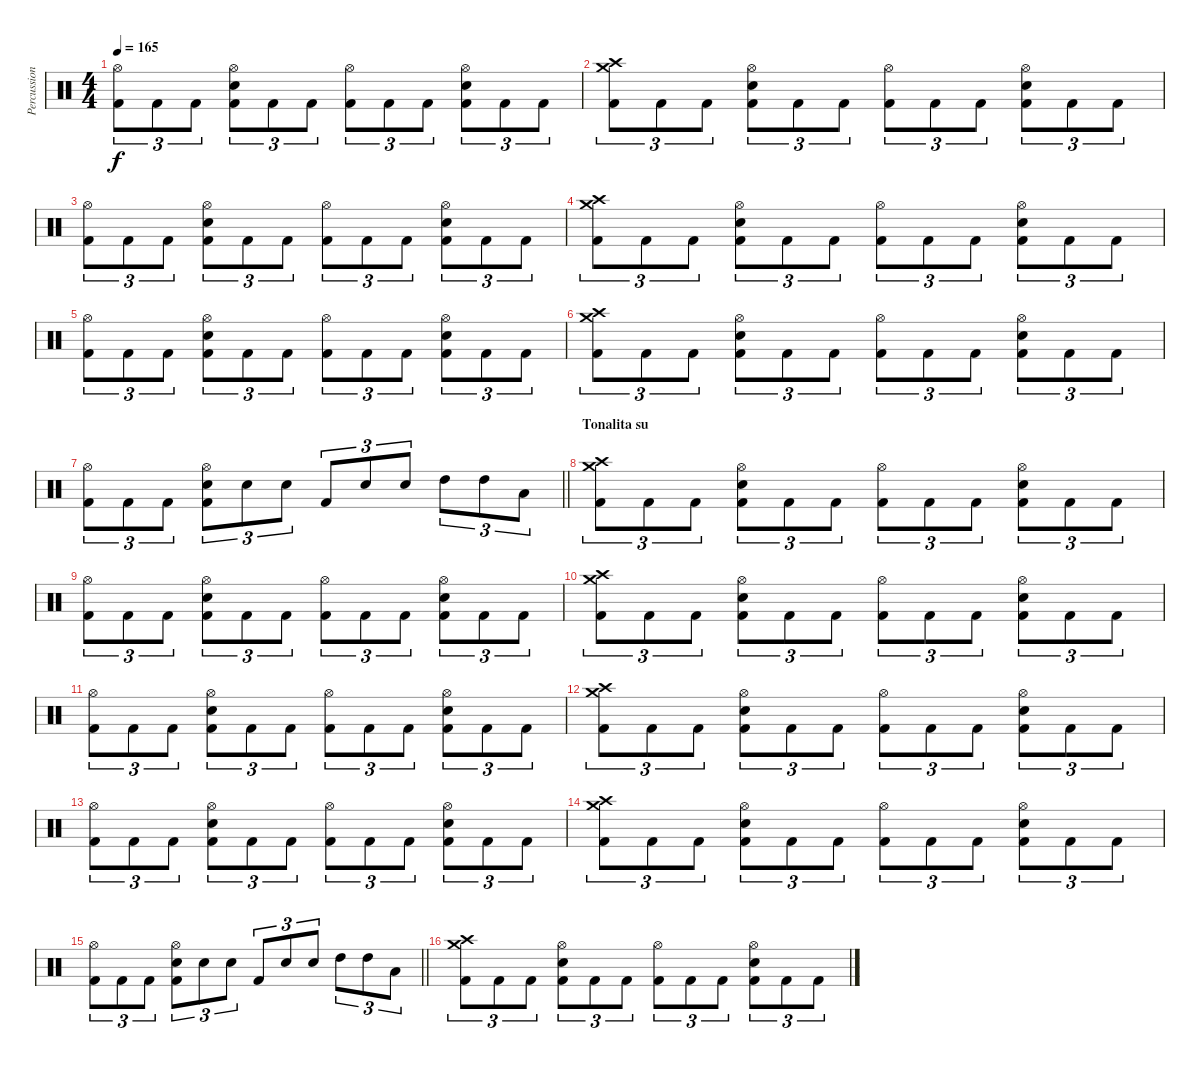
\track ("Percussioni" "Percussion") {instrument percussion}
\staff {score}
\articulation defaults
\ts (4 4)
\tempo 165
\clef neutral
\ks c
("Hi-Hat (open)" "Kick (hit) 2").8{tu (3 2) dy f} "Kick (hit) 2".8{tu (3 2)} "Kick (hit) 2".8{tu (3 2)} ("Hi-Hat (open)" "Electric Snare (hit)" "Kick (hit) 2").8{tu (3 2)} "Kick (hit) 2".8{tu (3 2)} "Kick (hit) 2".8{tu (3 2)} ("Hi-Hat (open)" "Kick (hit) 2").8{tu (3 2)} "Kick (hit) 2".8{tu (3 2)} "Kick (hit) 2".8{tu (3 2)} ("Hi-Hat (open)" "Electric Snare (hit)" "Kick (hit) 2").8{tu (3 2)} "Kick (hit) 2".8{tu (3 2)} "Kick (hit) 2".8{tu (3 2)} |
("Crash high (hit)" "Crash medium (hit)" "Kick (hit) 2").8{tu (3 2)} "Kick (hit) 2".8{tu (3 2)} "Kick (hit) 2".8{tu (3 2)} ("Hi-Hat (open)" "Electric Snare (hit)" "Kick (hit) 2").8{tu (3 2)} "Kick (hit) 2".8{tu (3 2)} "Kick (hit) 2".8{tu (3 2)} ("Hi-Hat (open)" "Kick (hit) 2").8{tu (3 2)} "Kick (hit) 2".8{tu (3 2)} "Kick (hit) 2".8{tu (3 2)} ("Hi-Hat (open)" "Electric Snare (hit)" "Kick (hit) 2").8{tu (3 2)} "Kick (hit) 2".8{tu (3 2)} "Kick (hit) 2".8{tu (3 2)} |
("Hi-Hat (open)" "Kick (hit) 2").8{tu (3 2)} "Kick (hit) 2".8{tu (3 2)} "Kick (hit) 2".8{tu (3 2)} ("Hi-Hat (open)" "Electric Snare (hit)" "Kick (hit) 2").8{tu (3 2)} "Kick (hit) 2".8{tu (3 2)} "Kick (hit) 2".8{tu (3 2)} ("Hi-Hat (open)" "Kick (hit) 2").8{tu (3 2)} "Kick (hit) 2".8{tu (3 2)} "Kick (hit) 2".8{tu (3 2)} ("Hi-Hat (open)" "Electric Snare (hit)" "Kick (hit) 2").8{tu (3 2)} "Kick (hit) 2".8{tu (3 2)} "Kick (hit) 2".8{tu (3 2)} |
("Crash high (hit)" "Crash medium (hit)" "Kick (hit) 2").8{tu (3 2)} "Kick (hit) 2".8{tu (3 2)} "Kick (hit) 2".8{tu (3 2)} ("Hi-Hat (open)" "Electric Snare (hit)" "Kick (hit) 2").8{tu (3 2)} "Kick (hit) 2".8{tu (3 2)} "Kick (hit) 2".8{tu (3 2)} ("Hi-Hat (open)" "Kick (hit) 2").8{tu (3 2)} "Kick (hit) 2".8{tu (3 2)} "Kick (hit) 2".8{tu (3 2)} ("Hi-Hat (open)" "Electric Snare (hit)" "Kick (hit) 2").8{tu (3 2)} "Kick (hit) 2".8{tu (3 2)} "Kick (hit) 2".8{tu (3 2)} |
("Hi-Hat (open)" "Kick (hit) 2").8{tu (3 2)} "Kick (hit) 2".8{tu (3 2)} "Kick (hit) 2".8{tu (3 2)} ("Hi-Hat (open)" "Electric Snare (hit)" "Kick (hit) 2").8{tu (3 2)} "Kick (hit) 2".8{tu (3 2)} "Kick (hit) 2".8{tu (3 2)} ("Hi-Hat (open)" "Kick (hit) 2").8{tu (3 2)} "Kick (hit) 2".8{tu (3 2)} "Kick (hit) 2".8{tu (3 2)} ("Hi-Hat (open)" "Electric Snare (hit)" "Kick (hit) 2").8{tu (3 2)} "Kick (hit) 2".8{tu (3 2)} "Kick (hit) 2".8{tu (3 2)} |
("Crash high (hit)" "Crash medium (hit)" "Kick (hit) 2").8{tu (3 2)} "Kick (hit) 2".8{tu (3 2)} "Kick (hit) 2".8{tu (3 2)} ("Hi-Hat (open)" "Electric Snare (hit)" "Kick (hit) 2").8{tu (3 2)} "Kick (hit) 2".8{tu (3 2)} "Kick (hit) 2".8{tu (3 2)} ("Hi-Hat (open)" "Kick (hit) 2").8{tu (3 2)} "Kick (hit) 2".8{tu (3 2)} "Kick (hit) 2".8{tu (3 2)} ("Hi-Hat (open)" "Electric Snare (hit)" "Kick (hit) 2").8{tu (3 2)} "Kick (hit) 2".8{tu (3 2)} "Kick (hit) 2".8{tu (3 2)} |
\barLineRight lightlight
("Hi-Hat (open)" "Kick (hit) 2").8{tu (3 2)} "Kick (hit) 2".8{tu (3 2)} "Kick (hit) 2".8{tu (3 2)} ("Hi-Hat (open)" "Electric Snare (hit)" "Kick (hit) 2").8{tu (3 2)} "Electric Snare (hit)".8{tu (3 2)} "Electric Snare (hit)".8{tu (3 2)} "Kick (hit) 2".8{tu (3 2)} "Electric Snare (hit)".8{tu (3 2)} "Electric Snare (hit)".8{tu (3 2)} "High Tom (hit)".8{tu (3 2)} "High Tom (hit)".8{tu (3 2)} "Low Tom (hit)".8{tu (3 2)} |
\section ("" "Tonalita su")
("Crash high (hit)" "Crash medium (hit)" "Kick (hit) 2").8{tu (3 2)} "Kick (hit) 2".8{tu (3 2)} "Kick (hit) 2".8{tu (3 2)} ("Hi-Hat (open)" "Electric Snare (hit)" "Kick (hit) 2").8{tu (3 2)} "Kick (hit) 2".8{tu (3 2)} "Kick (hit) 2".8{tu (3 2)} ("Hi-Hat (open)" "Kick (hit) 2").8{tu (3 2)} "Kick (hit) 2".8{tu (3 2)} "Kick (hit) 2".8{tu (3 2)} ("Hi-Hat (open)" "Electric Snare (hit)" "Kick (hit) 2").8{tu (3 2)} "Kick (hit) 2".8{tu (3 2)} "Kick (hit) 2".8{tu (3 2)} |
("Hi-Hat (open)" "Kick (hit) 2").8{tu (3 2)} "Kick (hit) 2".8{tu (3 2)} "Kick (hit) 2".8{tu (3 2)} ("Hi-Hat (open)" "Electric Snare (hit)" "Kick (hit) 2").8{tu (3 2)} "Kick (hit) 2".8{tu (3 2)} "Kick (hit) 2".8{tu (3 2)} ("Hi-Hat (open)" "Kick (hit) 2").8{tu (3 2)} "Kick (hit) 2".8{tu (3 2)} "Kick (hit) 2".8{tu (3 2)} ("Hi-Hat (open)" "Electric Snare (hit)" "Kick (hit) 2").8{tu (3 2)} "Kick (hit) 2".8{tu (3 2)} "Kick (hit) 2".8{tu (3 2)} |
("Crash high (hit)" "Crash medium (hit)" "Kick (hit) 2").8{tu (3 2)} "Kick (hit) 2".8{tu (3 2)} "Kick (hit) 2".8{tu (3 2)} ("Hi-Hat (open)" "Electric Snare (hit)" "Kick (hit) 2").8{tu (3 2)} "Kick (hit) 2".8{tu (3 2)} "Kick (hit) 2".8{tu (3 2)} ("Hi-Hat (open)" "Kick (hit) 2").8{tu (3 2)} "Kick (hit) 2".8{tu (3 2)} "Kick (hit) 2".8{tu (3 2)} ("Hi-Hat (open)" "Electric Snare (hit)" "Kick (hit) 2").8{tu (3 2)} "Kick (hit) 2".8{tu (3 2)} "Kick (hit) 2".8{tu (3 2)} |
("Hi-Hat (open)" "Kick (hit) 2").8{tu (3 2)} "Kick (hit) 2".8{tu (3 2)} "Kick (hit) 2".8{tu (3 2)} ("Hi-Hat (open)" "Electric Snare (hit)" "Kick (hit) 2").8{tu (3 2)} "Kick (hit) 2".8{tu (3 2)} "Kick (hit) 2".8{tu (3 2)} ("Hi-Hat (open)" "Kick (hit) 2").8{tu (3 2)} "Kick (hit) 2".8{tu (3 2)} "Kick (hit) 2".8{tu (3 2)} ("Hi-Hat (open)" "Electric Snare (hit)" "Kick (hit) 2").8{tu (3 2)} "Kick (hit) 2".8{tu (3 2)} "Kick (hit) 2".8{tu (3 2)} |
("Crash high (hit)" "Crash medium (hit)" "Kick (hit) 2").8{tu (3 2)} "Kick (hit) 2".8{tu (3 2)} "Kick (hit) 2".8{tu (3 2)} ("Hi-Hat (open)" "Electric Snare (hit)" "Kick (hit) 2").8{tu (3 2)} "Kick (hit) 2".8{tu (3 2)} "Kick (hit) 2".8{tu (3 2)} ("Hi-Hat (open)" "Kick (hit) 2").8{tu (3 2)} "Kick (hit) 2".8{tu (3 2)} "Kick (hit) 2".8{tu (3 2)} ("Hi-Hat (open)" "Electric Snare (hit)" "Kick (hit) 2").8{tu (3 2)} "Kick (hit) 2".8{tu (3 2)} "Kick (hit) 2".8{tu (3 2)} |
("Hi-Hat (open)" "Kick (hit) 2").8{tu (3 2)} "Kick (hit) 2".8{tu (3 2)} "Kick (hit) 2".8{tu (3 2)} ("Hi-Hat (open)" "Electric Snare (hit)" "Kick (hit) 2").8{tu (3 2)} "Kick (hit) 2".8{tu (3 2)} "Kick (hit) 2".8{tu (3 2)} ("Hi-Hat (open)" "Kick (hit) 2").8{tu (3 2)} "Kick (hit) 2".8{tu (3 2)} "Kick (hit) 2".8{tu (3 2)} ("Hi-Hat (open)" "Electric Snare (hit)" "Kick (hit) 2").8{tu (3 2)} "Kick (hit) 2".8{tu (3 2)} "Kick (hit) 2".8{tu (3 2)} |
("Crash high (hit)" "Crash medium (hit)" "Kick (hit) 2").8{tu (3 2)} "Kick (hit) 2".8{tu (3 2)} "Kick (hit) 2".8{tu (3 2)} ("Hi-Hat (open)" "Electric Snare (hit)" "Kick (hit) 2").8{tu (3 2)} "Kick (hit) 2".8{tu (3 2)} "Kick (hit) 2".8{tu (3 2)} ("Hi-Hat (open)" "Kick (hit) 2").8{tu (3 2)} "Kick (hit) 2".8{tu (3 2)} "Kick (hit) 2".8{tu (3 2)} ("Hi-Hat (open)" "Electric Snare (hit)" "Kick (hit) 2").8{tu (3 2)} "Kick (hit) 2".8{tu (3 2)} "Kick (hit) 2".8{tu (3 2)} |
\barLineRight lightlight
("Hi-Hat (open)" "Kick (hit) 2").8{tu (3 2)} "Kick (hit) 2".8{tu (3 2)} "Kick (hit) 2".8{tu (3 2)} ("Hi-Hat (open)" "Electric Snare (hit)" "Kick (hit) 2").8{tu (3 2)} "Electric Snare (hit)".8{tu (3 2)} "Electric Snare (hit)".8{tu (3 2)} "Kick (hit) 2".8{tu (3 2)} "Electric Snare (hit)".8{tu (3 2)} "Electric Snare (hit)".8{tu (3 2)} "High Tom (hit)".8{tu (3 2)} "High Tom (hit)".8{tu (3 2)} "Low Tom (hit)".8{tu (3 2)} |
\section ("" "")
("Crash high (hit)" "Crash medium (hit)" "Kick (hit) 2").8{tu (3 2)} "Kick (hit) 2".8{tu (3 2)} "Kick (hit) 2".8{tu (3 2)} ("Hi-Hat (open)" "Electric Snare (hit)" "Kick (hit) 2").8{tu (3 2)} "Kick (hit) 2".8{tu (3 2)} "Kick (hit) 2".8{tu (3 2)} ("Hi-Hat (open)" "Kick (hit) 2").8{tu (3 2)} "Kick (hit) 2".8{tu (3 2)} "Kick (hit) 2".8{tu (3 2)} ("Hi-Hat (open)" "Electric Snare (hit)" "Kick (hit) 2").8{tu (3 2)} "Kick (hit) 2".8{tu (3 2)} "Kick (hit) 2".8{tu (3 2)}
